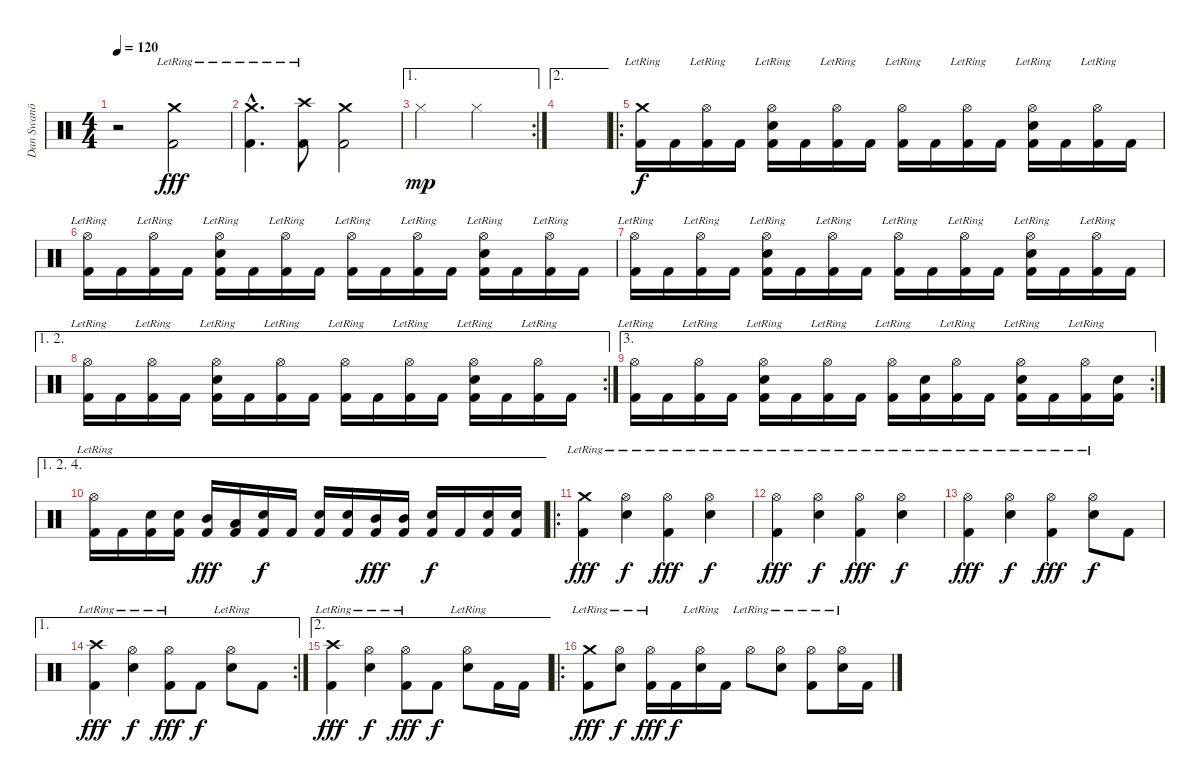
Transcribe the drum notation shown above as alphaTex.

\track ("Dan Swanö" "Dan Swanö") {instrument percussion}
\staff {score}
\articulation defaults
\ts (4 4)
\tempo 120
\clef neutral
\ks c
r.2{dy fff} ("Crash medium (hit)"{lr} "Kick (hit) 2").2 |
("Crash medium (hit)"{hac lr} "Kick (hit) 2"{hac}).4{d} ("Crash high (hit)"{lr} "Kick (hit) 2").8 ("Crash medium (hit)" "Kick (hit) 2").2 |
\ae 1
\rc 2 "Hi-Hat (closed)".2{dy mp} "Hi-Hat (closed)".2
|
\ae 2
|
\ro
("Crash medium (hit)"{lr} "Kick (hit) 2").16{dy f} "Kick (hit) 2".16 ("Hi-Hat (open)"{lr} "Kick (hit) 2").16 "Kick (hit) 2".16 ("Hi-Hat (open)"{lr} "Electric Snare (hit)" "Kick (hit) 2").16 "Kick (hit) 2".16 ("Hi-Hat (open)"{lr} "Kick (hit) 2").16 "Kick (hit) 2".16 ("Hi-Hat (open)"{lr} "Kick (hit) 2").16 "Kick (hit) 2".16 ("Hi-Hat (open)"{lr} "Kick (hit) 2").16 "Kick (hit) 2".16 ("Hi-Hat (open)"{lr} "Electric Snare (hit)" "Kick (hit) 2").16 "Kick (hit) 2".16 ("Hi-Hat (open)"{lr} "Kick (hit) 2").16 "Kick (hit) 2".16 |
("Hi-Hat (open)"{lr} "Kick (hit) 2").16 "Kick (hit) 2".16 ("Hi-Hat (open)"{lr} "Kick (hit) 2").16 "Kick (hit) 2".16 ("Hi-Hat (open)"{lr} "Electric Snare (hit)" "Kick (hit) 2").16 "Kick (hit) 2".16 ("Hi-Hat (open)"{lr} "Kick (hit) 2").16 "Kick (hit) 2".16 ("Hi-Hat (open)"{lr} "Kick (hit) 2").16 "Kick (hit) 2".16 ("Hi-Hat (open)"{lr} "Kick (hit) 2").16 "Kick (hit) 2".16 ("Hi-Hat (open)"{lr} "Electric Snare (hit)" "Kick (hit) 2").16 "Kick (hit) 2".16 ("Hi-Hat (open)"{lr} "Kick (hit) 2").16 "Kick (hit) 2".16 |
("Hi-Hat (open)"{lr} "Kick (hit) 2").16 "Kick (hit) 2".16 ("Hi-Hat (open)"{lr} "Kick (hit) 2").16 "Kick (hit) 2".16 ("Hi-Hat (open)"{lr} "Electric Snare (hit)" "Kick (hit) 2").16 "Kick (hit) 2".16 ("Hi-Hat (open)"{lr} "Kick (hit) 2").16 "Kick (hit) 2".16 ("Hi-Hat (open)"{lr} "Kick (hit) 2").16 "Kick (hit) 2".16 ("Hi-Hat (open)"{lr} "Kick (hit) 2").16 "Kick (hit) 2".16 ("Hi-Hat (open)"{lr} "Electric Snare (hit)" "Kick (hit) 2").16 "Kick (hit) 2".16 ("Hi-Hat (open)"{lr} "Kick (hit) 2").16 "Kick (hit) 2".16 |
\ae (1 2)
\rc 2
("Hi-Hat (open)"{lr} "Kick (hit) 2").16 "Kick (hit) 2".16 ("Hi-Hat (open)"{lr} "Kick (hit) 2").16 "Kick (hit) 2".16 ("Hi-Hat (open)"{lr} "Electric Snare (hit)" "Kick (hit) 2").16 "Kick (hit) 2".16 ("Hi-Hat (open)"{lr} "Kick (hit) 2").16 "Kick (hit) 2".16 ("Hi-Hat (open)"{lr} "Kick (hit) 2").16 "Kick (hit) 2".16 ("Hi-Hat (open)"{lr} "Kick (hit) 2").16 "Kick (hit) 2".16 ("Hi-Hat (open)"{lr} "Electric Snare (hit)" "Kick (hit) 2").16 "Kick (hit) 2".16 ("Hi-Hat (open)"{lr} "Kick (hit) 2").16 "Kick (hit) 2".16 |
\ae 3
\rc 2
("Hi-Hat (open)"{lr} "Kick (hit) 2").16 "Kick (hit) 2".16 ("Hi-Hat (open)"{lr} "Kick (hit) 2").16 "Kick (hit) 2".16 ("Hi-Hat (open)"{lr} "Electric Snare (hit)" "Kick (hit) 2").16 "Kick (hit) 2".16 ("Hi-Hat (open)"{lr} "Kick (hit) 2").16 "Kick (hit) 2".16 ("Hi-Hat (open)"{lr} "Kick (hit) 2").16 ("Electric Snare (hit)" "Kick (hit) 2").16 ("Hi-Hat (open)"{lr} "Kick (hit) 2").16 "Kick (hit) 2".16 ("Hi-Hat (open)"{lr} "Electric Snare (hit)" "Kick (hit) 2").16 "Kick (hit) 2".16 ("Hi-Hat (open)"{lr} "Kick (hit) 2").16 ("Electric Snare (hit)" "Kick (hit) 2").16 |
\ae (1 2 4)
("Hi-Hat (open)"{lr} "Kick (hit) 2").16 "Kick (hit) 2".16 ("Electric Snare (hit)" "Kick (hit) 2").16 ("Electric Snare (hit)" "Kick (hit) 2").16 ("Mid Tom (hit)" "Kick (hit) 2").16{dy fff} ("Low Tom (hit)" "Kick (hit) 2").16 ("Electric Snare (hit)" "Kick (hit) 2").16{dy f} "Kick (hit) 2".16 ("Electric Snare (hit)" "Kick (hit) 2").16 ("Electric Snare (hit)" "Kick (hit) 2").16 ("Mid Tom (hit)" "Kick (hit) 2").16{dy fff} ("Mid Tom (hit)" "Kick (hit) 2").16 ("Electric Snare (hit)" "Kick (hit) 2").16{dy f} "Kick (hit) 2".16 ("Electric Snare (hit)" "Kick (hit) 2").16 ("Electric Snare (hit)" "Kick (hit) 2").16 |
\ro
("Crash medium (hit)"{lr} "Kick (hit) 2").4{dy fff} ("Hi-Hat (open)"{lr} "Electric Snare (hit)").4{dy f} ("Hi-Hat (open)"{lr} "Kick (hit) 2").4{dy fff} ("Hi-Hat (open)"{lr} "Electric Snare (hit)").4{dy f} |
("Hi-Hat (open)"{lr} "Kick (hit) 2").4{dy fff} ("Hi-Hat (open)"{lr} "Electric Snare (hit)").4{dy f} ("Hi-Hat (open)"{lr} "Kick (hit) 2").4{dy fff} ("Hi-Hat (open)"{lr} "Electric Snare (hit)").4{dy f} |
("Hi-Hat (open)"{lr} "Kick (hit) 2").4{dy fff} ("Hi-Hat (open)"{lr} "Electric Snare (hit)").4{dy f} ("Hi-Hat (open)"{lr} "Kick (hit) 2").4{dy fff} ("Hi-Hat (open)"{lr} "Electric Snare (hit)").8{dy f} "Kick (hit) 2".8 |
\ae 1
\rc 2
("Crash high (hit)"{lr} "Kick (hit) 2").4{dy fff} ("Hi-Hat (open)"{lr} "Electric Snare (hit)").4{dy f} ("Hi-Hat (open)"{lr} "Kick (hit) 2").8{dy fff} "Kick (hit) 2".8{dy f} ("Hi-Hat (open)"{lr} "Electric Snare (hit)").8 "Kick (hit) 2".8 |
\ae 2
("Crash high (hit)"{lr} "Kick (hit) 2").4{dy fff} ("Hi-Hat (open)"{lr} "Electric Snare (hit)").4{dy f} ("Hi-Hat (open)"{lr} "Kick (hit) 2").8{dy fff} "Kick (hit) 2".8{dy f} ("Hi-Hat (open)"{lr} "Electric Snare (hit)").8 "Kick (hit) 2".16 "Kick (hit) 2".16 |
\ro
("Crash medium (hit)"{lr} "Kick (hit) 2").8{dy fff} ("Hi-Hat (open)"{lr} "Electric Snare (hit)").8{dy f} ("Hi-Hat (open)"{lr} "Kick (hit) 2").16{dy fff} "Kick (hit) 2".16{dy f} ("Hi-Hat (open)"{lr} "Electric Snare (hit)").16 "Kick (hit) 2".16 "Hi-Hat (open)"{lr}.8 ("Hi-Hat (open)"{lr} "Electric Snare (hit)").8 ("Hi-Hat (open)"{lr} "Kick (hit) 2").8 ("Hi-Hat (open)"{lr} "Electric Snare (hit)").16 "Kick (hit) 2".16
